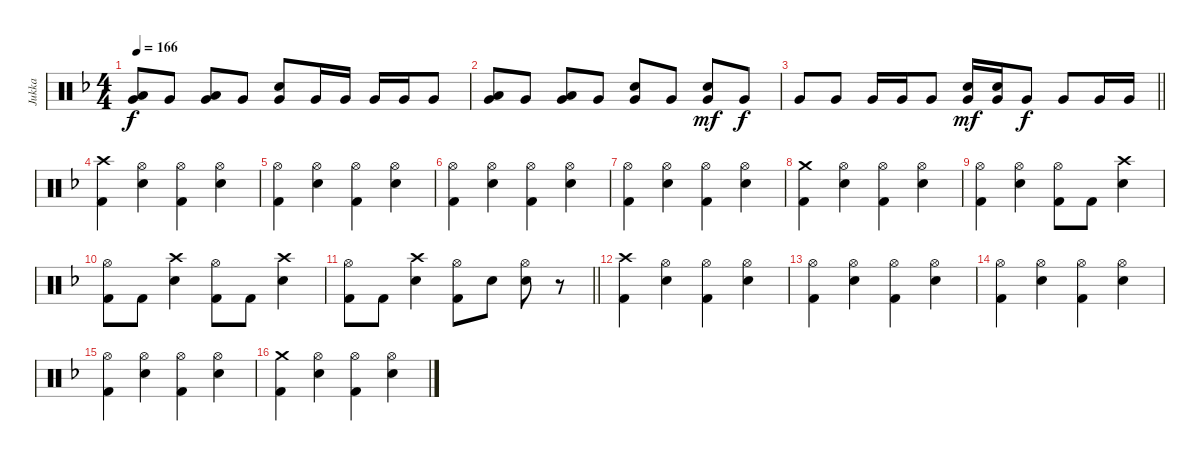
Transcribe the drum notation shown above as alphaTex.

\track ("Jukka" "Jukka") {instrument percussion}
\staff {score}
\articulation defaults
\ts (4 4)
\tempo 166
\clef neutral
\ks f
("Very Low Tom (hit)" "Low Floor Tom (hit)").8{dy f} "Very Low Tom (hit)".8 ("Very Low Tom (hit)" "Low Floor Tom (hit)").8 "Very Low Tom (hit)".8 ("Very Low Tom (hit)" "Electric Snare (hit)").8 "Very Low Tom (hit)".16 "Very Low Tom (hit)".16 "Very Low Tom (hit)".16 "Very Low Tom (hit)".16 "Very Low Tom (hit)".8 |
("Very Low Tom (hit)" "Low Floor Tom (hit)").8 "Very Low Tom (hit)".8 ("Very Low Tom (hit)" "Low Floor Tom (hit)").8 "Very Low Tom (hit)".8 ("Very Low Tom (hit)" "Electric Snare (hit)").8 "Very Low Tom (hit)".8 ("Very Low Tom (hit)" "Electric Snare (hit)").8{dy mf} "Very Low Tom (hit)".8{dy f} |
\barLineRight lightlight "Very Low Tom (hit)".8 "Very Low Tom (hit)".8 "Very Low Tom (hit)".16 "Very Low Tom (hit)".16 "Very Low Tom (hit)".8
("Very Low Tom (hit)" "Electric Snare (hit)").16{dy mf} ("Very Low Tom (hit)" "Electric Snare (hit)").16 "Very Low Tom (hit)".8{dy f} "Very Low Tom (hit)".8 "Very Low Tom (hit)".16 "Very Low Tom (hit)".16 |
\section ("" "")
("Crash high (hit)" "Kick (hit) 2").4 ("Hi-Hat (open)" "Electric Snare (hit)").4 ("Hi-Hat (open)" "Kick (hit) 2").4 ("Hi-Hat (open)" "Electric Snare (hit)").4 |
("Hi-Hat (open)" "Kick (hit) 2").4 ("Hi-Hat (open)" "Electric Snare (hit)").4 ("Hi-Hat (open)" "Kick (hit) 2").4 ("Hi-Hat (open)" "Electric Snare (hit)").4 |
("Hi-Hat (open)" "Kick (hit) 2").4 ("Hi-Hat (open)" "Electric Snare (hit)").4 ("Hi-Hat (open)" "Kick (hit) 2").4 ("Hi-Hat (open)" "Electric Snare (hit)").4 |
("Hi-Hat (open)" "Kick (hit) 2").4 ("Hi-Hat (open)" "Electric Snare (hit)").4 ("Hi-Hat (open)" "Kick (hit) 2").4 ("Hi-Hat (open)" "Electric Snare (hit)").4 |
("Crash medium (hit)" "Kick (hit) 2").4 ("Hi-Hat (open)" "Electric Snare (hit)").4 ("Hi-Hat (open)" "Kick (hit) 2").4 ("Hi-Hat (open)" "Electric Snare (hit)").4 |
("Hi-Hat (open)" "Kick (hit) 2").4 ("Hi-Hat (open)" "Electric Snare (hit)").4 ("Hi-Hat (open)" "Kick (hit) 2").8 "Kick (hit) 2".8 ("Crash high (hit)" "Electric Snare (hit)").4 |
("Hi-Hat (open)" "Kick (hit) 2").8 "Kick (hit) 2".8 ("Crash high (hit)" "Electric Snare (hit)").4 ("Hi-Hat (open)" "Kick (hit) 2").8 "Kick (hit) 2".8 ("Crash high (hit)" "Electric Snare (hit)").4 |
\barLineRight lightlight
("Hi-Hat (open)" "Kick (hit) 2").8 "Kick (hit) 2".8 ("Crash high (hit)" "Electric Snare (hit)").4 ("Hi-Hat (open)" "Kick (hit) 2").8 "Electric Snare (hit)".8 ("Hi-Hat (open)" "Electric Snare (hit)").8 r.8 |
\section ("" "")
("Crash high (hit)" "Kick (hit) 2").4 ("Hi-Hat (open)" "Electric Snare (hit)").4 ("Hi-Hat (open)" "Kick (hit) 2").4 ("Hi-Hat (open)" "Electric Snare (hit)").4 |
("Hi-Hat (open)" "Kick (hit) 2").4 ("Hi-Hat (open)" "Electric Snare (hit)").4 ("Hi-Hat (open)" "Kick (hit) 2").4 ("Hi-Hat (open)" "Electric Snare (hit)").4 |
("Hi-Hat (open)" "Kick (hit) 2").4 ("Hi-Hat (open)" "Electric Snare (hit)").4 ("Hi-Hat (open)" "Kick (hit) 2").4 ("Hi-Hat (open)" "Electric Snare (hit)").4 |
("Hi-Hat (open)" "Kick (hit) 2").4 ("Hi-Hat (open)" "Electric Snare (hit)").4 ("Hi-Hat (open)" "Kick (hit) 2").4 ("Hi-Hat (open)" "Electric Snare (hit)").4 |
("Crash medium (hit)" "Kick (hit) 2").4 ("Hi-Hat (open)" "Electric Snare (hit)").4 ("Hi-Hat (open)" "Kick (hit) 2").4 ("Hi-Hat (open)" "Electric Snare (hit)").4
